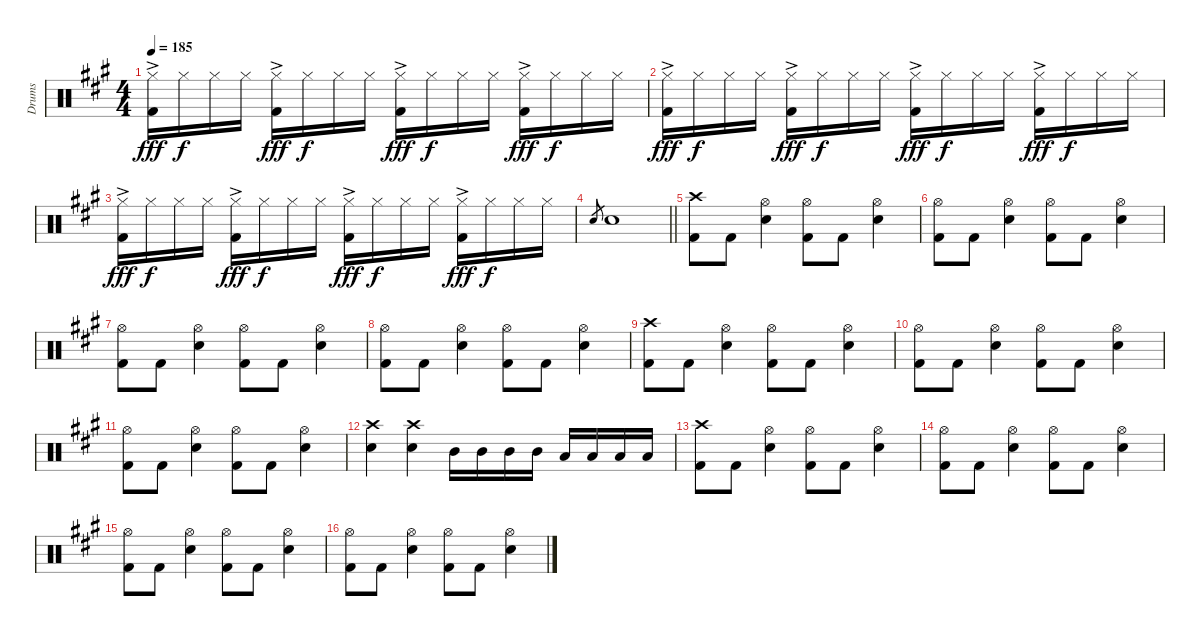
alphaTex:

\track ("Drums" "Drums") {instrument percussion}
\staff {score}
\articulation defaults
\ts (4 4)
\tempo 185
\clef neutral
\ks f#minor
("Hi-Hat (closed)"{ac} "Kick (hit) 2").16{dy fff} "Hi-Hat (closed)".16{dy f} "Hi-Hat (closed)".16 "Hi-Hat (closed)".16 ("Hi-Hat (closed)"{ac} "Kick (hit) 2").16{dy fff} "Hi-Hat (closed)".16{dy f} "Hi-Hat (closed)".16 "Hi-Hat (closed)".16 ("Hi-Hat (closed)"{ac} "Kick (hit) 2").16{dy fff} "Hi-Hat (closed)".16{dy f} "Hi-Hat (closed)".16 "Hi-Hat (closed)".16 ("Hi-Hat (closed)"{ac} "Kick (hit) 2").16{dy fff} "Hi-Hat (closed)".16{dy f} "Hi-Hat (closed)".16 "Hi-Hat (closed)".16 |
("Hi-Hat (closed)"{ac} "Kick (hit) 2").16{dy fff} "Hi-Hat (closed)".16{dy f} "Hi-Hat (closed)".16 "Hi-Hat (closed)".16 ("Hi-Hat (closed)"{ac} "Kick (hit) 2").16{dy fff} "Hi-Hat (closed)".16{dy f} "Hi-Hat (closed)".16 "Hi-Hat (closed)".16 ("Hi-Hat (closed)"{ac} "Kick (hit) 2").16{dy fff} "Hi-Hat (closed)".16{dy f} "Hi-Hat (closed)".16 "Hi-Hat (closed)".16 ("Hi-Hat (closed)"{ac} "Kick (hit) 2").16{dy fff} "Hi-Hat (closed)".16{dy f} "Hi-Hat (closed)".16 "Hi-Hat (closed)".16 |
("Hi-Hat (closed)"{ac} "Kick (hit) 2").16{dy fff} "Hi-Hat (closed)".16{dy f} "Hi-Hat (closed)".16 "Hi-Hat (closed)".16 ("Hi-Hat (closed)"{ac} "Kick (hit) 2").16{dy fff} "Hi-Hat (closed)".16{dy f} "Hi-Hat (closed)".16 "Hi-Hat (closed)".16 ("Hi-Hat (closed)"{ac} "Kick (hit) 2").16{dy fff} "Hi-Hat (closed)".16{dy f} "Hi-Hat (closed)".16 "Hi-Hat (closed)".16 ("Hi-Hat (closed)"{ac} "Kick (hit) 2").16{dy fff} "Hi-Hat (closed)".16{dy f} "Hi-Hat (closed)".16 "Hi-Hat (closed)".16 |
\barLineRight lightlight "Electric Snare (hit)".8{gr} "Electric Snare (hit)".1
|
("Crash high (hit)" "Kick (hit) 2").8 "Kick (hit) 2".8 ("Hi-Hat (open)" "Electric Snare (hit)").4 ("Hi-Hat (open)" "Kick (hit) 2").8 "Kick (hit) 2".8 ("Hi-Hat (open)" "Electric Snare (hit)").4 |
("Hi-Hat (open)" "Kick (hit) 2").8 "Kick (hit) 2".8 ("Hi-Hat (open)" "Electric Snare (hit)").4 ("Hi-Hat (open)" "Kick (hit) 2").8 "Kick (hit) 2".8 ("Hi-Hat (open)" "Electric Snare (hit)").4 |
("Hi-Hat (open)" "Kick (hit) 2").8 "Kick (hit) 2".8 ("Hi-Hat (open)" "Electric Snare (hit)").4 ("Hi-Hat (open)" "Kick (hit) 2").8 "Kick (hit) 2".8 ("Hi-Hat (open)" "Electric Snare (hit)").4 |
("Hi-Hat (open)" "Kick (hit) 2").8 "Kick (hit) 2".8 ("Hi-Hat (open)" "Electric Snare (hit)").4 ("Hi-Hat (open)" "Kick (hit) 2").8 "Kick (hit) 2".8 ("Hi-Hat (open)" "Electric Snare (hit)").4 |
("Crash high (hit)" "Kick (hit) 2").8 "Kick (hit) 2".8 ("Hi-Hat (open)" "Electric Snare (hit)").4 ("Hi-Hat (open)" "Kick (hit) 2").8 "Kick (hit) 2".8 ("Hi-Hat (open)" "Electric Snare (hit)").4 |
("Hi-Hat (open)" "Kick (hit) 2").8 "Kick (hit) 2".8 ("Hi-Hat (open)" "Electric Snare (hit)").4 ("Hi-Hat (open)" "Kick (hit) 2").8 "Kick (hit) 2".8 ("Hi-Hat (open)" "Electric Snare (hit)").4 |
("Hi-Hat (open)" "Kick (hit) 2").8 "Kick (hit) 2".8 ("Hi-Hat (open)" "Electric Snare (hit)").4 ("Hi-Hat (open)" "Kick (hit) 2").8 "Kick (hit) 2".8 ("Hi-Hat (open)" "Electric Snare (hit)").4 |
("Crash high (hit)" "Electric Snare (hit)").4 ("Crash high (hit)" "Electric Snare (hit)").4 "Mid Tom (hit)".16 "Mid Tom (hit)".16 "Mid Tom (hit)".16 "Mid Tom (hit)".16 "Low Tom (hit)".16 "Low Tom (hit)".16 "Low Tom (hit)".16 "Low Tom (hit)".16 |
("Crash high (hit)" "Kick (hit) 2").8 "Kick (hit) 2".8 ("Hi-Hat (open)" "Electric Snare (hit)").4 ("Hi-Hat (open)" "Kick (hit) 2").8 "Kick (hit) 2".8 ("Hi-Hat (open)" "Electric Snare (hit)").4 |
("Hi-Hat (open)" "Kick (hit) 2").8 "Kick (hit) 2".8 ("Hi-Hat (open)" "Electric Snare (hit)").4 ("Hi-Hat (open)" "Kick (hit) 2").8 "Kick (hit) 2".8 ("Hi-Hat (open)" "Electric Snare (hit)").4 |
("Hi-Hat (open)" "Kick (hit) 2").8 "Kick (hit) 2".8 ("Hi-Hat (open)" "Electric Snare (hit)").4 ("Hi-Hat (open)" "Kick (hit) 2").8 "Kick (hit) 2".8 ("Hi-Hat (open)" "Electric Snare (hit)").4 |
("Hi-Hat (open)" "Kick (hit) 2").8 "Kick (hit) 2".8 ("Hi-Hat (open)" "Electric Snare (hit)").4 ("Hi-Hat (open)" "Kick (hit) 2").8 "Kick (hit) 2".8 ("Hi-Hat (open)" "Electric Snare (hit)").4
